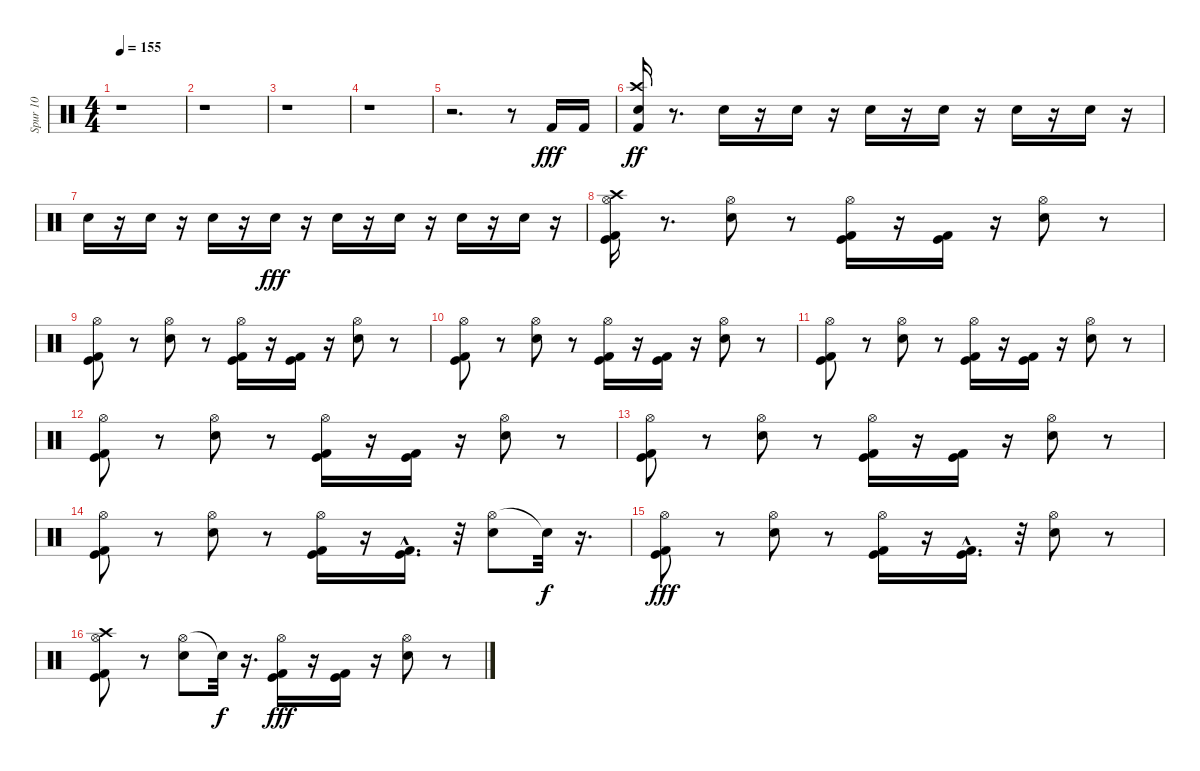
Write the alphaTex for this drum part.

\track ("Spur 10" "Spur 10") {instrument percussion}
\staff {score}
\articulation defaults
\ts (4 4)
\tempo 155
\clef neutral
\ks c
r.1{dy fff} |
r.1 |
r.1 |
r.1 |
r.2{d} r.8 "Kick (hit) 2".16 "Kick (hit) 2".16 |
("Crash high (hit)" "Kick (hit) 2" "Electric Snare (hit)").16{dy ff} r.8{d} "Electric Snare (hit)".16 r.16 "Electric Snare (hit)".16 r.16 "Electric Snare (hit)".16 r.16 "Electric Snare (hit)".16 r.16 "Electric Snare (hit)".16 r.16 "Electric Snare (hit)".16 r.16 |
"Electric Snare (hit)".16 r.16 "Electric Snare (hit)".16 r.16 "Electric Snare (hit)".16 r.16 "Electric Snare (hit)".16{dy fff} r.16 "Electric Snare (hit)".16 r.16 "Electric Snare (hit)".16 r.16 "Electric Snare (hit)".16 r.16 "Electric Snare (hit)".16 r.16 |
("Kick (hit)" "Crash high (hit)" "Hi-Hat (open)" "Kick (hit) 2").16 r.8{d} ("Hi-Hat (open)" "Electric Snare (hit)").8 r.8 ("Kick (hit)" "Hi-Hat (open)" "Kick (hit) 2").16 r.16 ("Kick (hit)" "Kick (hit) 2").16 r.16 ("Hi-Hat (open)" "Electric Snare (hit)").8 r.8 |
("Kick (hit)" "Hi-Hat (open)" "Kick (hit) 2").8 r.8 ("Hi-Hat (open)" "Electric Snare (hit)").8 r.8 ("Kick (hit)" "Hi-Hat (open)" "Kick (hit) 2").16 r.16 ("Kick (hit)" "Kick (hit) 2").16 r.16 ("Hi-Hat (open)" "Electric Snare (hit)").8 r.8 |
("Kick (hit)" "Hi-Hat (open)" "Kick (hit) 2").8 r.8 ("Hi-Hat (open)" "Electric Snare (hit)").8 r.8 ("Kick (hit)" "Hi-Hat (open)" "Kick (hit) 2").16 r.16 ("Kick (hit)" "Kick (hit) 2").16 r.16 ("Hi-Hat (open)" "Electric Snare (hit)").8 r.8 |
("Kick (hit)" "Hi-Hat (open)" "Kick (hit) 2").8 r.8 ("Hi-Hat (open)" "Electric Snare (hit)").8 r.8 ("Kick (hit)" "Hi-Hat (open)" "Kick (hit) 2").16 r.16 ("Kick (hit)" "Kick (hit) 2").16 r.16 ("Hi-Hat (open)" "Electric Snare (hit)").8 r.8 |
("Kick (hit)" "Hi-Hat (open)" "Kick (hit) 2").8 r.8 ("Hi-Hat (open)" "Electric Snare (hit)").8 r.8 ("Kick (hit)" "Hi-Hat (open)" "Kick (hit) 2").16 r.16 ("Kick (hit)" "Kick (hit) 2").16 r.16 ("Hi-Hat (open)" "Electric Snare (hit)").8 r.8 |
("Kick (hit)" "Hi-Hat (open)" "Kick (hit) 2").8 r.8 ("Hi-Hat (open)" "Electric Snare (hit)").8 r.8 ("Kick (hit)" "Hi-Hat (open)" "Kick (hit) 2").16 r.16 ("Kick (hit)" "Kick (hit) 2").16 r.16 ("Hi-Hat (open)" "Electric Snare (hit)").8 r.8 |
("Kick (hit)" "Hi-Hat (open)" "Kick (hit) 2").8 r.8 ("Hi-Hat (open)" "Electric Snare (hit)").8 r.8 ("Kick (hit)" "Hi-Hat (open)" "Kick (hit) 2").16 r.16 ("Kick (hit)"{hac} "Kick (hit) 2"{hac}).16{d} r.32 ("Hi-Hat (open)" "Electric Snare (hit)").8 "Snare (hit)"{t}.32{dy f} r.16{d} |
("Kick (hit)" "Hi-Hat (open)" "Kick (hit) 2").8{dy fff} r.8 ("Hi-Hat (open)" "Electric Snare (hit)").8 r.8 ("Kick (hit)" "Hi-Hat (open)" "Kick (hit) 2").16 r.16 ("Kick (hit)"{hac} "Kick (hit) 2"{hac}).16{d} r.32 ("Hi-Hat (open)" "Electric Snare (hit)").8 r.8 |
("Crash high (hit)" "Kick (hit)" "Hi-Hat (open)" "Kick (hit) 2").8 r.8 ("Hi-Hat (open)" "Electric Snare (hit)").8 "Snare (hit)"{t}.32{dy f} r.16{d} ("Kick (hit)" "Hi-Hat (open)" "Kick (hit) 2").16{dy fff} r.16 ("Kick (hit)" "Kick (hit) 2").16 r.16 ("Hi-Hat (open)" "Electric Snare (hit)").8 r.8
